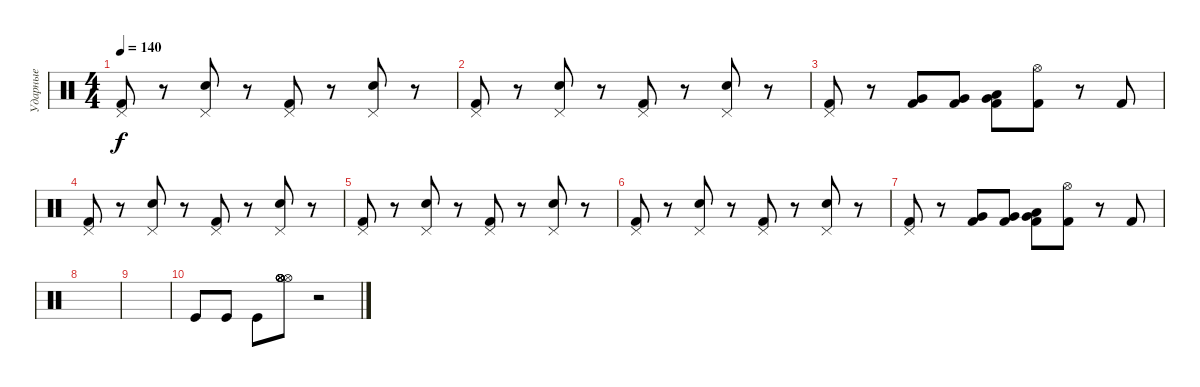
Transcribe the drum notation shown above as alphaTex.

\track ("Ударные" "Ударные") {instrument percussion}
\staff
\articulation defaults
\ts (4 4)
\tempo 140
\clef neutral
\ks c
("Pedal Hi-Hat (hit)" "Kick (hit) 2").8{dy f} r.8 ("Pedal Hi-Hat (hit)" "Snare (hit) 2").8 r.8 ("Pedal Hi-Hat (hit)" "Kick (hit) 2").8 r.8 ("Pedal Hi-Hat (hit)" "Snare (hit) 2").8 r.8 |
("Pedal Hi-Hat (hit)" "Kick (hit) 2").8 r.8 ("Pedal Hi-Hat (hit)" "Snare (hit) 2").8 r.8 ("Pedal Hi-Hat (hit)" "Kick (hit) 2").8 r.8 ("Pedal Hi-Hat (hit)" "Snare (hit) 2").8 r.8 |
("Pedal Hi-Hat (hit)" "Kick (hit) 2").8 r.8 ("Very Low Tom (hit)" "Kick (hit) 2").8 ("Very Low Tom (hit)" "Kick (hit) 2").8 ("Very Low Tom (hit)" "Low Tom (hit)" "Kick (hit) 2").8 ("Hi-Hat (open)" "Kick (hit) 2").8 r.8 "Kick (hit) 2".8 |
("Pedal Hi-Hat (hit)" "Kick (hit) 2").8 r.8 ("Pedal Hi-Hat (hit)" "Snare (hit) 2").8 r.8 ("Pedal Hi-Hat (hit)" "Kick (hit) 2").8 r.8 ("Pedal Hi-Hat (hit)" "Snare (hit) 2").8 r.8 |
("Pedal Hi-Hat (hit)" "Kick (hit) 2").8 r.8 ("Pedal Hi-Hat (hit)" "Snare (hit) 2").8 r.8 ("Pedal Hi-Hat (hit)" "Kick (hit) 2").8 r.8 ("Pedal Hi-Hat (hit)" "Snare (hit) 2").8 r.8 |
("Pedal Hi-Hat (hit)" "Kick (hit) 2").8 r.8 ("Pedal Hi-Hat (hit)" "Snare (hit) 2").8 r.8 ("Pedal Hi-Hat (hit)" "Kick (hit) 2").8 r.8 ("Pedal Hi-Hat (hit)" "Snare (hit) 2").8 r.8 |
("Pedal Hi-Hat (hit)" "Kick (hit) 2").8 r.8 ("Very Low Tom (hit)" "Kick (hit) 2").8 ("Very Low Tom (hit)" "Kick (hit) 2").8 ("Very Low Tom (hit)" "Low Tom (hit)" "Kick (hit) 2").8 ("Hi-Hat (open)" "Kick (hit) 2").8 r.8 "Kick (hit) 2".8 |
|
|
"Kick (hit)".8 "Kick (hit)".8 "Kick (hit)".8 ("Hi-Hat (open)" "Hi-Hat (open)" "Hi-Hat (open)" "Hi-Hat (open)" "Hi-Hat (open)" "Hi-Hat (open)").8 r.2
